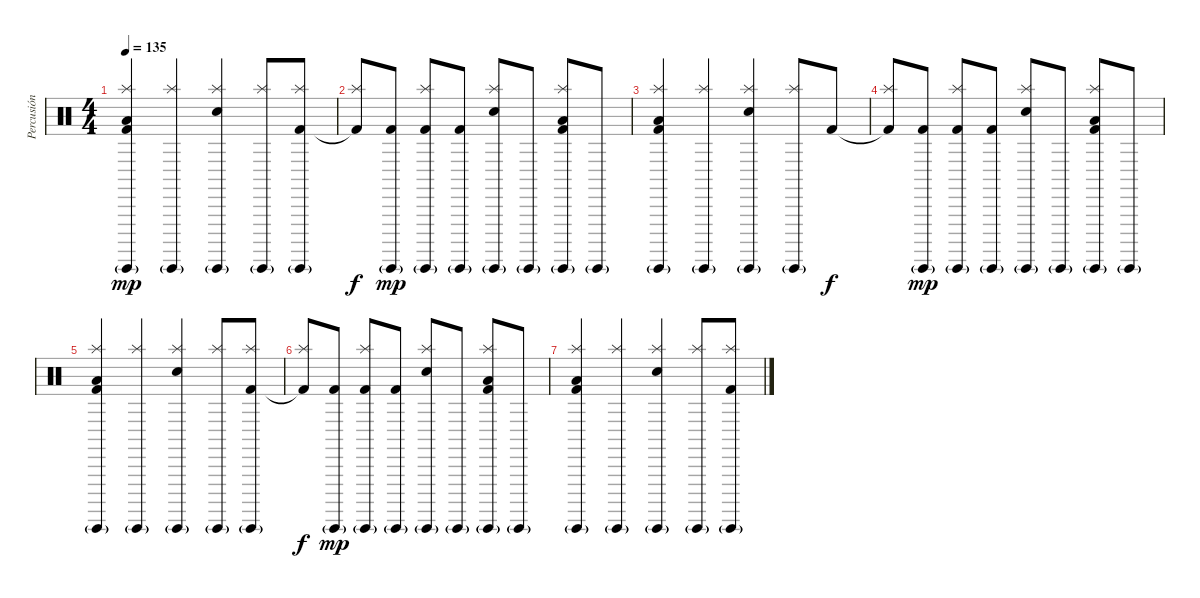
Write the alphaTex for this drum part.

\track ("Percusión" "Percusión") {instrument percussion}
\staff {score}
\articulation defaults
\ts (4 4)
\tempo 135
\clef neutral
\ks c
("Kick (hit) 2" "Guiro (hit)"{g} "Splash (hit)" "Low Floor Tom (hit)").4{dy mp volume 11} ("Splash (hit)" "Guiro (hit)"{g}).4 ("Snare (hit) 2" "Splash (hit)" "Guiro (hit)"{g}).4{volume 10} ("Splash (hit)" "Guiro (hit)"{g}).8 ("Kick (hit) 2" "Splash (hit)" "Guiro (hit)"{g}).8{volume 9} |
("Kick (hit) 2"{t} "Splash (hit)").8{dy f volume 8} ("Kick (hit) 2" "Guiro (hit)"{g}).8{dy mp} ("Kick (hit) 2" "Guiro (hit)"{g} "Splash (hit)").8 ("Kick (hit) 2" "Guiro (hit)"{g}).8{volume 7} ("Snare (hit) 2" "Guiro (hit)"{g} "Splash (hit)").8 "Guiro (hit)"{g}.8 ("Kick (hit) 2" "Guiro (hit)"{g} "Splash (hit)" "Low Floor Tom (hit)").8{volume 6} "Guiro (hit)"{g}.8 |
("Kick (hit) 2" "Guiro (hit)"{g} "Splash (hit)" "Low Floor Tom (hit)").4{volume 5} ("Splash (hit)" "Guiro (hit)"{g}).4 ("Snare (hit) 2" "Splash (hit)" "Guiro (hit)"{g}).4 ("Splash (hit)" "Guiro (hit)"{g}).8{volume 5} "Kick (hit) 2".8{dy f} |
("Kick (hit) 2"{t} "Splash (hit)").8{volume 4} ("Kick (hit) 2" "Guiro (hit)"{g}).8{dy mp} ("Kick (hit) 2" "Guiro (hit)"{g} "Splash (hit)").8 ("Kick (hit) 2" "Guiro (hit)"{g}).8 ("Snare (hit) 2" "Guiro (hit)"{g} "Splash (hit)").8 "Guiro (hit)"{g}.8 ("Kick (hit) 2" "Guiro (hit)"{g} "Splash (hit)" "Low Floor Tom (hit)").8{volume 3} "Guiro (hit)"{g}.8 |
("Kick (hit) 2" "Guiro (hit)"{g} "Splash (hit)" "Low Floor Tom (hit)").4 ("Splash (hit)" "Guiro (hit)"{g}).4 ("Snare (hit) 2" "Splash (hit)" "Guiro (hit)"{g}).4 ("Splash (hit)" "Guiro (hit)"{g}).8 ("Kick (hit) 2" "Splash (hit)" "Guiro (hit)"{g}).8 |
("Kick (hit) 2"{t} "Splash (hit)").8{dy f volume 2} ("Kick (hit) 2" "Guiro (hit)"{g}).8{dy mp} ("Kick (hit) 2" "Guiro (hit)"{g} "Splash (hit)").8 ("Kick (hit) 2" "Guiro (hit)"{g}).8 ("Snare (hit) 2" "Guiro (hit)"{g} "Splash (hit)").8 "Guiro (hit)"{g}.8 ("Kick (hit) 2" "Guiro (hit)"{g} "Splash (hit)" "Low Floor Tom (hit)").8 "Guiro (hit)"{g}.8 |
("Kick (hit) 2" "Guiro (hit)"{g} "Splash (hit)" "Low Floor Tom (hit)").4{volume 0} ("Splash (hit)" "Guiro (hit)"{g}).4 ("Snare (hit) 2" "Splash (hit)" "Guiro (hit)"{g}).4 ("Splash (hit)" "Guiro (hit)"{g}).8 ("Kick (hit) 2" "Splash (hit)" "Guiro (hit)"{g}).8
